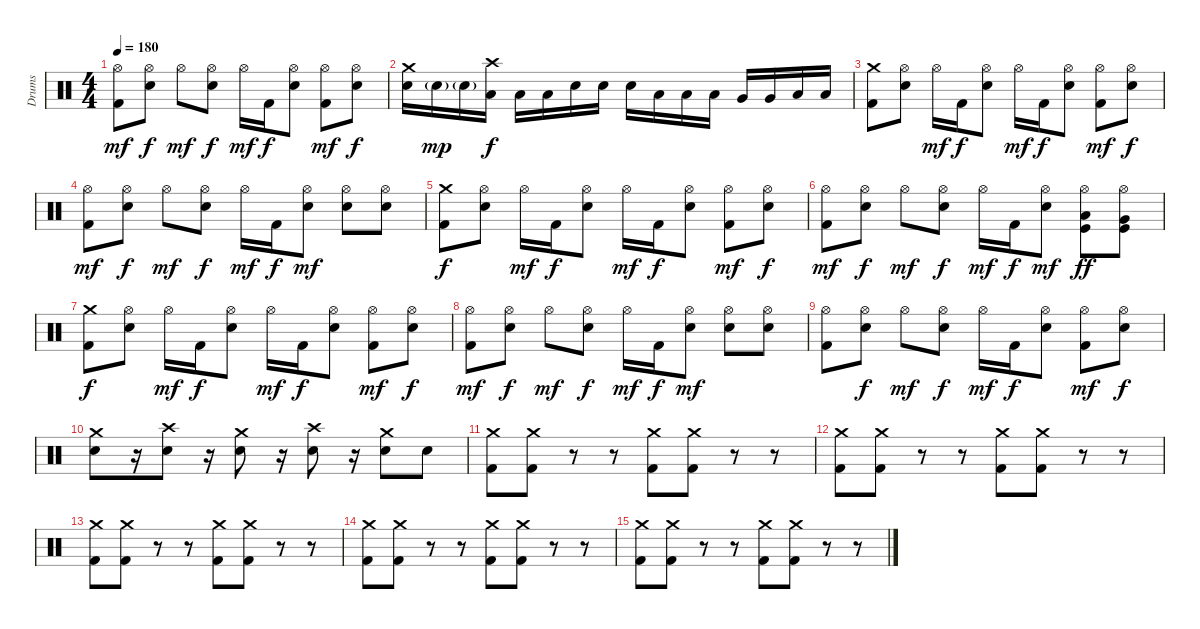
\track ("Drums" "Drums") {instrument percussion}
\staff {score}
\articulation defaults
\ts (4 4)
\tempo 180
\clef neutral
\ks c
("Hi-Hat (open)" "Kick (hit) 2").8{dy mf} ("Hi-Hat (open)" "Electric Snare (hit)").8{dy f} "Hi-Hat (open)".8{dy mf} ("Hi-Hat (open)" "Electric Snare (hit)").8{dy f} "Hi-Hat (open)".16{dy mf} "Kick (hit) 2".16{dy f} ("Hi-Hat (open)" "Electric Snare (hit)").8 ("Hi-Hat (open)" "Kick (hit) 2").8{dy mf} ("Hi-Hat (open)" "Electric Snare (hit)").8{dy f} |
("Crash medium (hit)" "Electric Snare (hit)").16 "Electric Snare (hit)"{g}.16{dy mp} "Electric Snare (hit)"{g}.16 ("Crash high (hit)" "Low Tom (hit)").16{dy f} "Low Tom (hit)".16 "Low Tom (hit)".16 "Electric Snare (hit)".16 "Electric Snare (hit)".16 "Electric Snare (hit)".16 "Low Tom (hit)".16 "Low Tom (hit)".16 "Low Tom (hit)".16 "Very Low Tom (hit)".16 "Very Low Tom (hit)".16 "Low Floor Tom (hit)".16 "Low Floor Tom (hit)".16 |
("Crash medium (hit)" "Kick (hit) 2").8 ("Hi-Hat (open)" "Electric Snare (hit)").8 "Hi-Hat (open)".16{dy mf} "Kick (hit) 2".16{dy f} ("Hi-Hat (open)" "Electric Snare (hit)").8 "Hi-Hat (open)".16{dy mf} "Kick (hit) 2".16{dy f} ("Hi-Hat (open)" "Electric Snare (hit)").8 ("Hi-Hat (open)" "Kick (hit) 2").8{dy mf} ("Hi-Hat (open)" "Electric Snare (hit)").8{dy f} |
("Hi-Hat (open)" "Kick (hit) 2").8{dy mf} ("Hi-Hat (open)" "Electric Snare (hit)").8{dy f} "Hi-Hat (open)".8{dy mf} ("Hi-Hat (open)" "Electric Snare (hit)").8{dy f} "Hi-Hat (open)".16{dy mf} "Kick (hit) 2".16{dy f} ("Hi-Hat (open)" "Electric Snare (hit)").8{dy mf} ("Hi-Hat (open)" "Electric Snare (hit)").8 ("Hi-Hat (open)" "Electric Snare (hit)").8 |
("Crash medium (hit)" "Kick (hit) 2").8{dy f} ("Hi-Hat (open)" "Electric Snare (hit)").8 "Hi-Hat (open)".16{dy mf} "Kick (hit) 2".16{dy f} ("Hi-Hat (open)" "Electric Snare (hit)").8 "Hi-Hat (open)".16{dy mf} "Kick (hit) 2".16{dy f} ("Hi-Hat (open)" "Electric Snare (hit)").8 ("Hi-Hat (open)" "Kick (hit) 2").8{dy mf} ("Hi-Hat (open)" "Electric Snare (hit)").8{dy f} |
("Hi-Hat (open)" "Kick (hit) 2").8{dy mf} ("Hi-Hat (open)" "Electric Snare (hit)").8{dy f} "Hi-Hat (open)".8{dy mf} ("Hi-Hat (open)" "Electric Snare (hit)").8{dy f} "Hi-Hat (open)".16{dy mf} "Kick (hit) 2".16{dy f} ("Hi-Hat (open)" "Electric Snare (hit)").8{dy mf} ("Hi-Hat (open)" "Low Tom (hit)" "Kick (hit)").8{dy ff} ("Hi-Hat (open)" "Very Low Tom (hit)" "Kick (hit)").8 |
("Crash medium (hit)" "Kick (hit) 2").8{dy f} ("Hi-Hat (open)" "Electric Snare (hit)").8 "Hi-Hat (open)".16{dy mf} "Kick (hit) 2".16{dy f} ("Hi-Hat (open)" "Electric Snare (hit)").8 "Hi-Hat (open)".16{dy mf} "Kick (hit) 2".16{dy f} ("Hi-Hat (open)" "Electric Snare (hit)").8 ("Hi-Hat (open)" "Kick (hit) 2").8{dy mf} ("Hi-Hat (open)" "Electric Snare (hit)").8{dy f} |
("Hi-Hat (open)" "Kick (hit) 2").8{dy mf} ("Hi-Hat (open)" "Electric Snare (hit)").8{dy f} "Hi-Hat (open)".8{dy mf} ("Hi-Hat (open)" "Electric Snare (hit)").8{dy f} "Hi-Hat (open)".16{dy mf} "Kick (hit) 2".16{dy f} ("Hi-Hat (open)" "Electric Snare (hit)").8{dy mf} ("Hi-Hat (open)" "Electric Snare (hit)").8 ("Hi-Hat (open)" "Electric Snare (hit)").8 |
("Hi-Hat (open)" "Kick (hit) 2").8 ("Hi-Hat (open)" "Electric Snare (hit)").8{dy f} "Hi-Hat (open)".8{dy mf} ("Hi-Hat (open)" "Electric Snare (hit)").8{dy f} "Hi-Hat (open)".16{dy mf} "Kick (hit) 2".16{dy f} ("Hi-Hat (open)" "Electric Snare (hit)").8 ("Hi-Hat (open)" "Kick (hit) 2").8{dy mf} ("Hi-Hat (open)" "Electric Snare (hit)").8{dy f} |
("Crash medium (hit)" "Electric Snare (hit)").8 r.16 ("Crash high (hit)" "Electric Snare (hit)").8 r.16 ("Crash medium (hit)" "Electric Snare (hit)").8 r.16 ("Crash high (hit)" "Electric Snare (hit)").8 r.16 ("Crash medium (hit)" "Electric Snare (hit)").8 "Electric Snare (hit)".8 |
("Crash medium (hit)" "Kick (hit) 2").8{volume 0} ("Crash medium (hit)" "Kick (hit) 2").8 r.8 r.8 ("Crash medium (hit)" "Kick (hit) 2").8 ("Crash medium (hit)" "Kick (hit) 2").8 r.8 r.8 |
("Crash medium (hit)" "Kick (hit) 2").8 ("Crash medium (hit)" "Kick (hit) 2").8 r.8 r.8 ("Crash medium (hit)" "Kick (hit) 2").8 ("Crash medium (hit)" "Kick (hit) 2").8 r.8 r.8 |
("Crash medium (hit)" "Kick (hit) 2").8 ("Crash medium (hit)" "Kick (hit) 2").8 r.8 r.8 ("Crash medium (hit)" "Kick (hit) 2").8 ("Crash medium (hit)" "Kick (hit) 2").8 r.8 r.8 |
("Crash medium (hit)" "Kick (hit) 2").8 ("Crash medium (hit)" "Kick (hit) 2").8 r.8 r.8 ("Crash medium (hit)" "Kick (hit) 2").8 ("Crash medium (hit)" "Kick (hit) 2").8 r.8 r.8 |
("Crash medium (hit)" "Kick (hit) 2").8 ("Crash medium (hit)" "Kick (hit) 2").8 r.8 r.8 ("Crash medium (hit)" "Kick (hit) 2").8 ("Crash medium (hit)" "Kick (hit) 2").8 r.8 r.8
